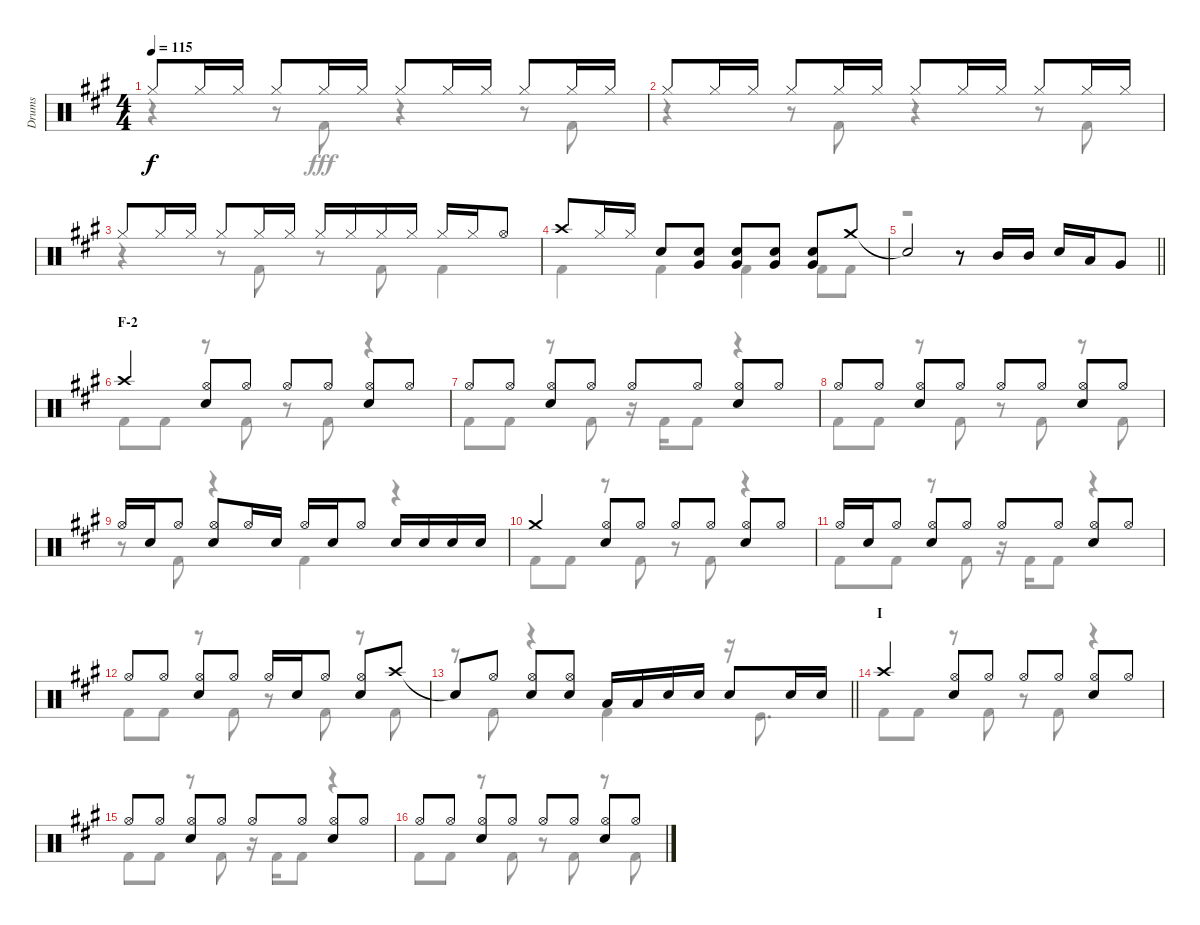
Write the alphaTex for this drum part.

\track ("Drums" "Drums") {instrument percussion}
\staff {score}
\articulation defaults
\voice
\ts (4 4)
\tempo 115
\clef neutral
\ks a "Hi-Hat (closed)".8{dy f} "Hi-Hat (closed)".16 "Hi-Hat (closed)".16 "Hi-Hat (closed)".8 "Hi-Hat (closed)".16 "Hi-Hat (closed)".16 "Hi-Hat (closed)".8 "Hi-Hat (closed)".16 "Hi-Hat (closed)".16 "Hi-Hat (closed)".8 "Hi-Hat (closed)".16 "Hi-Hat (closed)".16
|
"Hi-Hat (closed)".8 "Hi-Hat (closed)".16 "Hi-Hat (closed)".16 "Hi-Hat (closed)".8 "Hi-Hat (closed)".16 "Hi-Hat (closed)".16 "Hi-Hat (closed)".8 "Hi-Hat (closed)".16 "Hi-Hat (closed)".16 "Hi-Hat (closed)".8 "Hi-Hat (closed)".16 "Hi-Hat (closed)".16 |
"Hi-Hat (closed)".8 "Hi-Hat (closed)".16 "Hi-Hat (closed)".16 "Hi-Hat (closed)".8 "Hi-Hat (closed)".16 "Hi-Hat (closed)".16 "Hi-Hat (closed)".16 "Hi-Hat (closed)".16 "Hi-Hat (closed)".16 "Hi-Hat (closed)".16 "Hi-Hat (closed)".16 "Hi-Hat (closed)".16 "Hi-Hat (open)".8 |
"Crash high (hit)".8 "Hi-Hat (closed)".16 "Hi-Hat (closed)".16 "Snare (hit) 2".8 ("Snare (hit) 2" "Very Low Tom (hit)").8 ("Snare (hit) 2" "Very Low Tom (hit)").8 ("Snare (hit) 2" "Very Low Tom (hit)").8 ("Snare (hit) 2" "Very Low Tom (hit)").8 "Crash medium (hit)".8 |
\barLineRight lightlight "Snare (hit)"{t}.2
r.8 "Mid Tom (hit)".16 "Mid Tom (hit)".16 "Snare (hit) 2".16 "Low Tom (hit)".16 "Very Low Tom (hit)".8 |
\section ("" "F-2")
"Crash high (hit)".4 ("Hi-Hat (open)" "Snare (hit) 2").8 "Hi-Hat (open)".8 "Hi-Hat (open)".8 "Hi-Hat (open)".8 ("Hi-Hat (open)" "Snare (hit) 2").8 "Hi-Hat (open)".8 |
"Hi-Hat (open)".8 "Hi-Hat (open)".8 ("Hi-Hat (open)" "Snare (hit) 2").8 "Hi-Hat (open)".8 "Hi-Hat (open)".8 "Hi-Hat (open)".8 ("Hi-Hat (open)" "Snare (hit) 2").8 "Hi-Hat (open)".8 |
"Hi-Hat (open)".8 "Hi-Hat (open)".8 ("Hi-Hat (open)" "Snare (hit) 2").8 "Hi-Hat (open)".8 "Hi-Hat (open)".8 "Hi-Hat (open)".8 ("Hi-Hat (open)" "Snare (hit) 2").8 "Hi-Hat (open)".8 |
"Hi-Hat (open)".16 "Snare (hit) 2".16 "Hi-Hat (open)".8 ("Hi-Hat (open)" "Snare (hit) 2").8 "Hi-Hat (open)".16 "Snare (hit) 2".16 "Hi-Hat (open)".16 "Snare (hit) 2".16 "Hi-Hat (open)".8 "Snare (hit) 2".16 "Snare (hit) 2".16 "Snare (hit) 2".16 "Snare (hit) 2".16 |
"Crash medium (hit)".4 ("Hi-Hat (open)" "Snare (hit) 2").8 "Hi-Hat (open)".8 "Hi-Hat (open)".8 "Hi-Hat (open)".8 ("Hi-Hat (open)" "Snare (hit) 2").8 "Hi-Hat (open)".8 |
"Hi-Hat (open)".16 "Snare (hit) 2".16 "Hi-Hat (open)".8 ("Hi-Hat (open)" "Snare (hit) 2").8 "Hi-Hat (open)".8 "Hi-Hat (open)".8 "Hi-Hat (open)".8 ("Hi-Hat (open)" "Snare (hit) 2").8 "Hi-Hat (open)".8 |
"Hi-Hat (open)".8 "Hi-Hat (open)".8 ("Hi-Hat (open)" "Snare (hit) 2").8 "Hi-Hat (open)".8 "Hi-Hat (open)".16 "Snare (hit) 2".16 "Hi-Hat (open)".8 ("Hi-Hat (open)" "Snare (hit) 2").8 "Crash high (hit)".8 |
\barLineRight lightlight "Snare (hit)"{t}.8 "Hi-Hat (open)".8
("Hi-Hat (open)" "Snare (hit) 2").8 ("Hi-Hat (open)" "Snare (hit) 2").8 "Low Tom (hit)".16 "Low Tom (hit)".16 "Snare (hit) 2".16 "Snare (hit) 2".16 "Snare (hit) 2".8 "Snare (hit) 2".16 "Snare (hit) 2".16 |
\section ("" "I")
"Crash high (hit)".4 ("Hi-Hat (open)" "Snare (hit) 2").8 "Hi-Hat (open)".8 "Hi-Hat (open)".8 "Hi-Hat (open)".8 ("Hi-Hat (open)" "Snare (hit) 2").8 "Hi-Hat (open)".8 |
"Hi-Hat (open)".8 "Hi-Hat (open)".8 ("Hi-Hat (open)" "Snare (hit) 2").8 "Hi-Hat (open)".8 "Hi-Hat (open)".8 "Hi-Hat (open)".8 ("Hi-Hat (open)" "Snare (hit) 2").8 "Hi-Hat (open)".8 |
"Hi-Hat (open)".8 "Hi-Hat (open)".8 ("Hi-Hat (open)" "Snare (hit) 2").8 "Hi-Hat (open)".8 "Hi-Hat (open)".8 "Hi-Hat (open)".8 ("Hi-Hat (open)" "Snare (hit) 2").8 "Hi-Hat (open)".8
\voice
\clef neutral
\ottava regular
\simile none
\ks a
r.4{dy fff} r.8 "Kick (hit) 2".8 r.4 r.8 "Kick (hit) 2".8 |
r.4 r.8 "Kick (hit) 2".8 r.4 r.8 "Kick (hit) 2".8 |
r.4 r.8 "Kick (hit) 2".8 r.8 "Kick (hit) 2".8 "Kick (hit) 2".4 |
"Kick (hit) 2".4 "Kick (hit) 2".4 "Kick (hit) 2".4 "Kick (hit) 2".8 "Kick (hit) 2".8 |
\barLineRight lightlight
r.1 |
"Kick (hit) 2".8 "Kick (hit) 2".8 r.8 "Kick (hit) 2".8 r.8 "Kick (hit) 2".8 r.4 |
"Kick (hit) 2".8 "Kick (hit) 2".8 r.8 "Kick (hit) 2".8 r.16 "Kick (hit) 2".16 "Kick (hit) 2".8 r.4 |
"Kick (hit) 2".8 "Kick (hit) 2".8 r.8 "Kick (hit) 2".8 r.8 "Kick (hit) 2".8 r.8 "Kick (hit) 2".8 |
r.8 "Kick (hit) 2".8 r.4 "Kick (hit) 2".4 r.4 |
"Kick (hit) 2".8 "Kick (hit) 2".8 r.8 "Kick (hit) 2".8 r.8 "Kick (hit) 2".8 r.4 |
"Kick (hit) 2".8 "Kick (hit) 2".8 r.8 "Kick (hit) 2".8 r.16 "Kick (hit) 2".16 "Kick (hit) 2".8 r.4 |
"Kick (hit) 2".8 "Kick (hit) 2".8 r.8 "Kick (hit) 2".8 r.8 "Kick (hit) 2".8 r.8 "Kick (hit) 2".8 |
\barLineRight lightlight
r.8 "Kick (hit) 2".8 r.4 "Kick (hit) 2".4 r.16 "Kick (hit)".8{d} |
"Kick (hit) 2".8 "Kick (hit) 2".8 r.8 "Kick (hit) 2".8 r.8 "Kick (hit) 2".8 r.4 |
"Kick (hit) 2".8 "Kick (hit) 2".8 r.8 "Kick (hit) 2".8 r.16 "Kick (hit) 2".16 "Kick (hit) 2".8 r.4 |
"Kick (hit) 2".8 "Kick (hit) 2".8 r.8 "Kick (hit) 2".8 r.8 "Kick (hit) 2".8 r.8 "Kick (hit) 2".8
